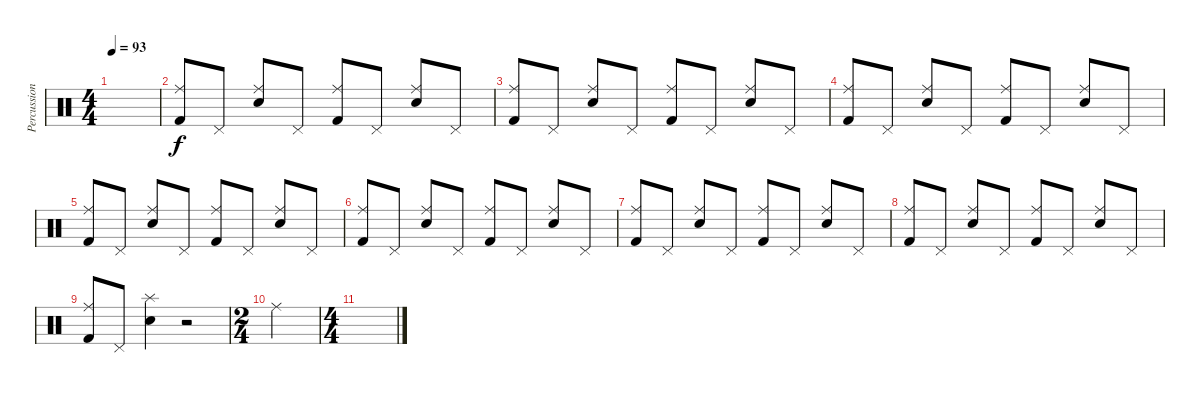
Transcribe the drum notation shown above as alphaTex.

\track ("Percussion" "Percussion") {instrument percussion}
\staff {score}
\articulation defaults
\ts (4 4)
\tempo 93
\clef neutral
\ks c
|
("Ride (middle)" "Kick (hit) 2").8 "Pedal Hi-Hat (hit)".8 ("Ride (middle)" "Snare (hit) 2").8 "Pedal Hi-Hat (hit)".8 ("Ride (middle)" "Kick (hit) 2").8 "Pedal Hi-Hat (hit)".8 ("Ride (middle)" "Snare (hit) 2").8 "Pedal Hi-Hat (hit)".8 |
("Ride (middle)" "Kick (hit) 2").8 "Pedal Hi-Hat (hit)".8 ("Ride (middle)" "Snare (hit) 2").8 "Pedal Hi-Hat (hit)".8 ("Ride (middle)" "Kick (hit) 2").8 "Pedal Hi-Hat (hit)".8 ("Ride (middle)" "Snare (hit) 2").8 "Pedal Hi-Hat (hit)".8 |
("Ride (middle)" "Kick (hit) 2").8 "Pedal Hi-Hat (hit)".8 ("Ride (middle)" "Snare (hit) 2").8 "Pedal Hi-Hat (hit)".8 ("Ride (middle)" "Kick (hit) 2").8 "Pedal Hi-Hat (hit)".8 ("Ride (middle)" "Snare (hit) 2").8 "Pedal Hi-Hat (hit)".8 |
("Ride (middle)" "Kick (hit) 2").8 "Pedal Hi-Hat (hit)".8 ("Ride (middle)" "Snare (hit) 2").8 "Pedal Hi-Hat (hit)".8 ("Ride (middle)" "Kick (hit) 2").8 "Pedal Hi-Hat (hit)".8 ("Ride (middle)" "Snare (hit) 2").8 "Pedal Hi-Hat (hit)".8 |
("Ride (middle)" "Kick (hit) 2").8 "Pedal Hi-Hat (hit)".8 ("Ride (middle)" "Snare (hit) 2").8 "Pedal Hi-Hat (hit)".8 ("Ride (middle)" "Kick (hit) 2").8 "Pedal Hi-Hat (hit)".8 ("Ride (middle)" "Snare (hit) 2").8 "Pedal Hi-Hat (hit)".8 |
("Ride (middle)" "Kick (hit) 2").8 "Pedal Hi-Hat (hit)".8 ("Ride (middle)" "Snare (hit) 2").8 "Pedal Hi-Hat (hit)".8 ("Ride (middle)" "Kick (hit) 2").8 "Pedal Hi-Hat (hit)".8 ("Ride (middle)" "Snare (hit) 2").8 "Pedal Hi-Hat (hit)".8 |
("Ride (middle)" "Kick (hit) 2").8 "Pedal Hi-Hat (hit)".8 ("Ride (middle)" "Snare (hit) 2").8 "Pedal Hi-Hat (hit)".8 ("Ride (middle)" "Kick (hit) 2").8 "Pedal Hi-Hat (hit)".8 ("Ride (middle)" "Snare (hit) 2").8 "Pedal Hi-Hat (hit)".8 |
("Ride (middle)" "Kick (hit) 2").8 "Pedal Hi-Hat (hit)".8 ("Splash (hit)" "Snare (hit) 2").4 r.2 |
\ts (2 4)
"Ride (middle)".2 |
\ts (4 4)
